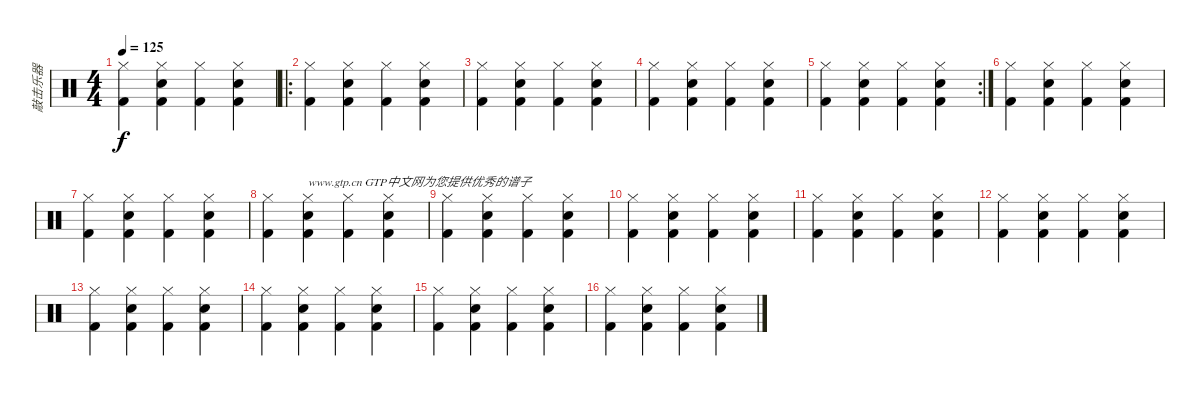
\track ("敲击乐器" "敲击乐器") {solo instrument percussion}
\staff {score}
\articulation defaults
\ts (4 4)
\tempo 125
\clef neutral
\ks c
("Hi-Hat (closed)" "Kick (hit) 2").4{dy f} ("Kick (hit) 2" "Hand Clap (hit)" "Hi-Hat (closed)").4 ("Kick (hit) 2" "Hi-Hat (closed)").4 ("Kick (hit) 2" "Hi-Hat (closed)" "Hand Clap (hit)").4 |
\ro
("Hi-Hat (closed)" "Kick (hit) 2").4 ("Kick (hit) 2" "Hand Clap (hit)" "Hi-Hat (closed)").4 ("Kick (hit) 2" "Hi-Hat (closed)").4 ("Kick (hit) 2" "Hi-Hat (closed)" "Hand Clap (hit)").4 |
("Hi-Hat (closed)" "Kick (hit) 2").4 ("Kick (hit) 2" "Hand Clap (hit)" "Hi-Hat (closed)").4 ("Kick (hit) 2" "Hi-Hat (closed)").4 ("Kick (hit) 2" "Hi-Hat (closed)" "Hand Clap (hit)").4 |
("Hi-Hat (closed)" "Kick (hit) 2").4 ("Kick (hit) 2" "Hand Clap (hit)" "Hi-Hat (closed)").4 ("Kick (hit) 2" "Hi-Hat (closed)").4 ("Kick (hit) 2" "Hi-Hat (closed)" "Hand Clap (hit)").4 |
\rc 2
("Hi-Hat (closed)" "Kick (hit) 2").4 ("Kick (hit) 2" "Hand Clap (hit)" "Hi-Hat (closed)").4 ("Kick (hit) 2" "Hi-Hat (closed)").4 ("Kick (hit) 2" "Hi-Hat (closed)" "Hand Clap (hit)").4 |
("Hi-Hat (closed)" "Kick (hit) 2").4 ("Kick (hit) 2" "Hand Clap (hit)" "Hi-Hat (closed)").4 ("Kick (hit) 2" "Hi-Hat (closed)").4 ("Kick (hit) 2" "Hi-Hat (closed)" "Hand Clap (hit)").4 |
("Hi-Hat (closed)" "Kick (hit) 2").4 ("Kick (hit) 2" "Hand Clap (hit)" "Hi-Hat (closed)").4 ("Kick (hit) 2" "Hi-Hat (closed)").4 ("Kick (hit) 2" "Hi-Hat (closed)" "Hand Clap (hit)").4 |
("Hi-Hat (closed)" "Kick (hit) 2").4 ("Kick (hit) 2" "Hand Clap (hit)" "Hi-Hat (closed)").4{txt "www.gtp.cn GTP中文网为您提供优秀的谱子"} ("Kick (hit) 2" "Hi-Hat (closed)").4 ("Kick (hit) 2" "Hi-Hat (closed)" "Hand Clap (hit)").4 |
("Hi-Hat (closed)" "Kick (hit) 2").4 ("Kick (hit) 2" "Hand Clap (hit)" "Hi-Hat (closed)").4 ("Kick (hit) 2" "Hi-Hat (closed)").4 ("Kick (hit) 2" "Hi-Hat (closed)" "Hand Clap (hit)").4 |
("Hi-Hat (closed)" "Kick (hit) 2").4 ("Kick (hit) 2" "Hand Clap (hit)" "Hi-Hat (closed)").4 ("Kick (hit) 2" "Hi-Hat (closed)").4 ("Kick (hit) 2" "Hi-Hat (closed)" "Hand Clap (hit)").4 |
("Hi-Hat (closed)" "Kick (hit) 2").4 ("Kick (hit) 2" "Hand Clap (hit)" "Hi-Hat (closed)").4 ("Kick (hit) 2" "Hi-Hat (closed)").4 ("Kick (hit) 2" "Hi-Hat (closed)" "Hand Clap (hit)").4 |
("Hi-Hat (closed)" "Kick (hit) 2").4 ("Kick (hit) 2" "Hand Clap (hit)" "Hi-Hat (closed)").4 ("Kick (hit) 2" "Hi-Hat (closed)").4 ("Kick (hit) 2" "Hi-Hat (closed)" "Hand Clap (hit)").4 |
("Hi-Hat (closed)" "Kick (hit) 2").4 ("Kick (hit) 2" "Hand Clap (hit)" "Hi-Hat (closed)").4 ("Kick (hit) 2" "Hi-Hat (closed)").4 ("Kick (hit) 2" "Hi-Hat (closed)" "Hand Clap (hit)").4 |
("Hi-Hat (closed)" "Kick (hit) 2").4 ("Kick (hit) 2" "Hand Clap (hit)" "Hi-Hat (closed)").4 ("Kick (hit) 2" "Hi-Hat (closed)").4 ("Kick (hit) 2" "Hi-Hat (closed)" "Hand Clap (hit)").4 |
("Hi-Hat (closed)" "Kick (hit) 2").4 ("Kick (hit) 2" "Hand Clap (hit)" "Hi-Hat (closed)").4 ("Kick (hit) 2" "Hi-Hat (closed)").4 ("Kick (hit) 2" "Hi-Hat (closed)" "Hand Clap (hit)").4 |
("Hi-Hat (closed)" "Kick (hit) 2").4 ("Kick (hit) 2" "Hand Clap (hit)" "Hi-Hat (closed)").4 ("Kick (hit) 2" "Hi-Hat (closed)").4 ("Kick (hit) 2" "Hi-Hat (closed)" "Hand Clap (hit)").4
